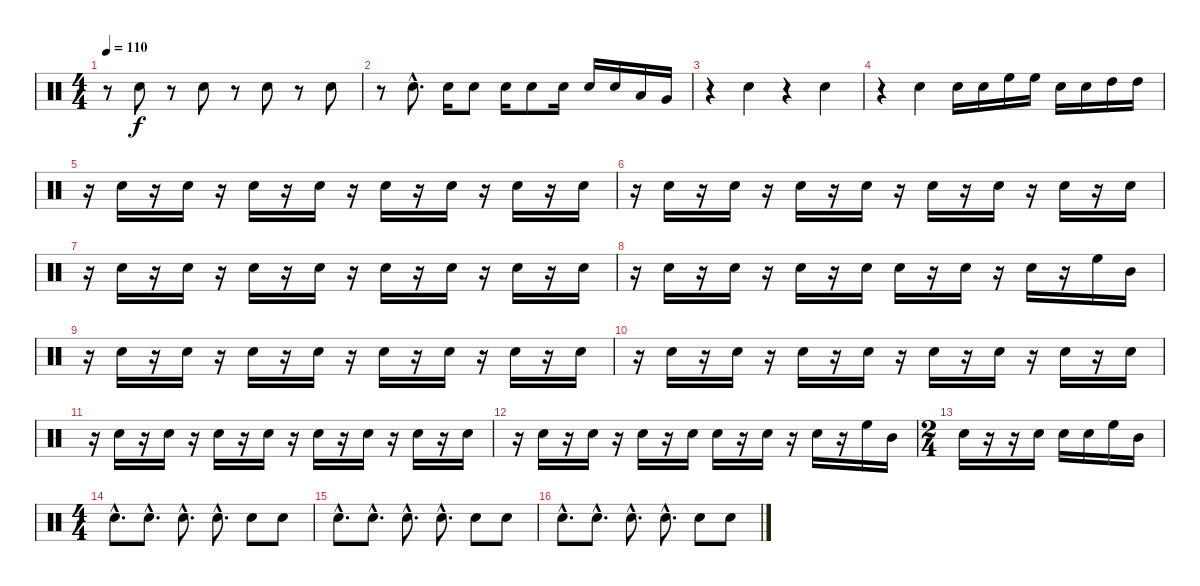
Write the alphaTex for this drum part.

\track "" {instrument percussion}
\staff {score}
\articulation defaults
\ts (4 4)
\tempo 110
\clef neutral
\ks c
r.8{dy f} "Electric Snare (hit)".8 r.8 "Electric Snare (hit)".8 r.8 "Electric Snare (hit)".8 r.8 "Electric Snare (hit)".8 |
r.8 "Electric Snare (hit)"{hac}.8{d} "Electric Snare (hit)".16 "Electric Snare (hit)".8 "Electric Snare (hit)".16 "Electric Snare (hit)".8 "Electric Snare (hit)".16 "Electric Snare (hit)".16 "Electric Snare (hit)".16 "Low Tom (hit)".16 "Very Low Tom (hit)".16 |
r.4 "Electric Snare (hit)".4 r.4 "Electric Snare (hit)".4 |
r.4 "Electric Snare (hit)".4 "Electric Snare (hit)".16 "Electric Snare (hit)".16 "High Floor Tom (hit)".16 "High Floor Tom (hit)".16 "Electric Snare (hit)".16 "Electric Snare (hit)".16 "High Tom (hit)".16 "High Tom (hit)".16 |
r.16 "Electric Snare (hit)".16 r.16 "Electric Snare (hit)".16 r.16 "Electric Snare (hit)".16 r.16 "Electric Snare (hit)".16 r.16 "Electric Snare (hit)".16 r.16 "Electric Snare (hit)".16 r.16 "Electric Snare (hit)".16 r.16 "Electric Snare (hit)".16 |
r.16 "Electric Snare (hit)".16 r.16 "Electric Snare (hit)".16 r.16 "Electric Snare (hit)".16 r.16 "Electric Snare (hit)".16 r.16 "Electric Snare (hit)".16 r.16 "Electric Snare (hit)".16 r.16 "Electric Snare (hit)".16 r.16 "Electric Snare (hit)".16 |
r.16 "Electric Snare (hit)".16 r.16 "Electric Snare (hit)".16 r.16 "Electric Snare (hit)".16 r.16 "Electric Snare (hit)".16 r.16 "Electric Snare (hit)".16 r.16 "Electric Snare (hit)".16 r.16 "Electric Snare (hit)".16 r.16 "Electric Snare (hit)".16 |
r.16 "Electric Snare (hit)".16 r.16 "Electric Snare (hit)".16 r.16 "Electric Snare (hit)".16 r.16 "Electric Snare (hit)".16 "Electric Snare (hit)".16 r.16 "Electric Snare (hit)".16 r.16 "Electric Snare (hit)".16 r.16 "High Floor Tom (hit)".16 "Mid Tom (hit)".16 |
r.16 "Electric Snare (hit)".16 r.16 "Electric Snare (hit)".16 r.16 "Electric Snare (hit)".16 r.16 "Electric Snare (hit)".16 r.16 "Electric Snare (hit)".16 r.16 "Electric Snare (hit)".16 r.16 "Electric Snare (hit)".16 r.16 "Electric Snare (hit)".16 |
r.16 "Electric Snare (hit)".16 r.16 "Electric Snare (hit)".16 r.16 "Electric Snare (hit)".16 r.16 "Electric Snare (hit)".16 r.16 "Electric Snare (hit)".16 r.16 "Electric Snare (hit)".16 r.16 "Electric Snare (hit)".16 r.16 "Electric Snare (hit)".16 |
r.16 "Electric Snare (hit)".16 r.16 "Electric Snare (hit)".16 r.16 "Electric Snare (hit)".16 r.16 "Electric Snare (hit)".16 r.16 "Electric Snare (hit)".16 r.16 "Electric Snare (hit)".16 r.16 "Electric Snare (hit)".16 r.16 "Electric Snare (hit)".16 |
r.16 "Electric Snare (hit)".16 r.16 "Electric Snare (hit)".16 r.16 "Electric Snare (hit)".16 r.16 "Electric Snare (hit)".16 "Electric Snare (hit)".16 r.16 "Electric Snare (hit)".16 r.16 "Electric Snare (hit)".16 r.16 "High Floor Tom (hit)".16 "Mid Tom (hit)".16 |
\ts (2 4)
"Electric Snare (hit)".16 r.16 r.16 "Electric Snare (hit)".16 "Electric Snare (hit)".16 "Electric Snare (hit)".16 "High Floor Tom (hit)".16 "Mid Tom (hit)".16 |
\ts (4 4)
"Electric Snare (hit)"{hac}.8{d} "Electric Snare (hit)"{hac}.8{d} "Electric Snare (hit)"{hac}.8{d} "Electric Snare (hit)"{hac}.8{d} "Electric Snare (hit)".8 "Electric Snare (hit)".8 |
"Electric Snare (hit)"{hac}.8{d} "Electric Snare (hit)"{hac}.8{d} "Electric Snare (hit)"{hac}.8{d} "Electric Snare (hit)"{hac}.8{d} "Electric Snare (hit)".8 "Electric Snare (hit)".8 |
"Electric Snare (hit)"{hac}.8{d} "Electric Snare (hit)"{hac}.8{d} "Electric Snare (hit)"{hac}.8{d} "Electric Snare (hit)"{hac}.8{d} "Electric Snare (hit)".8 "Electric Snare (hit)".8
